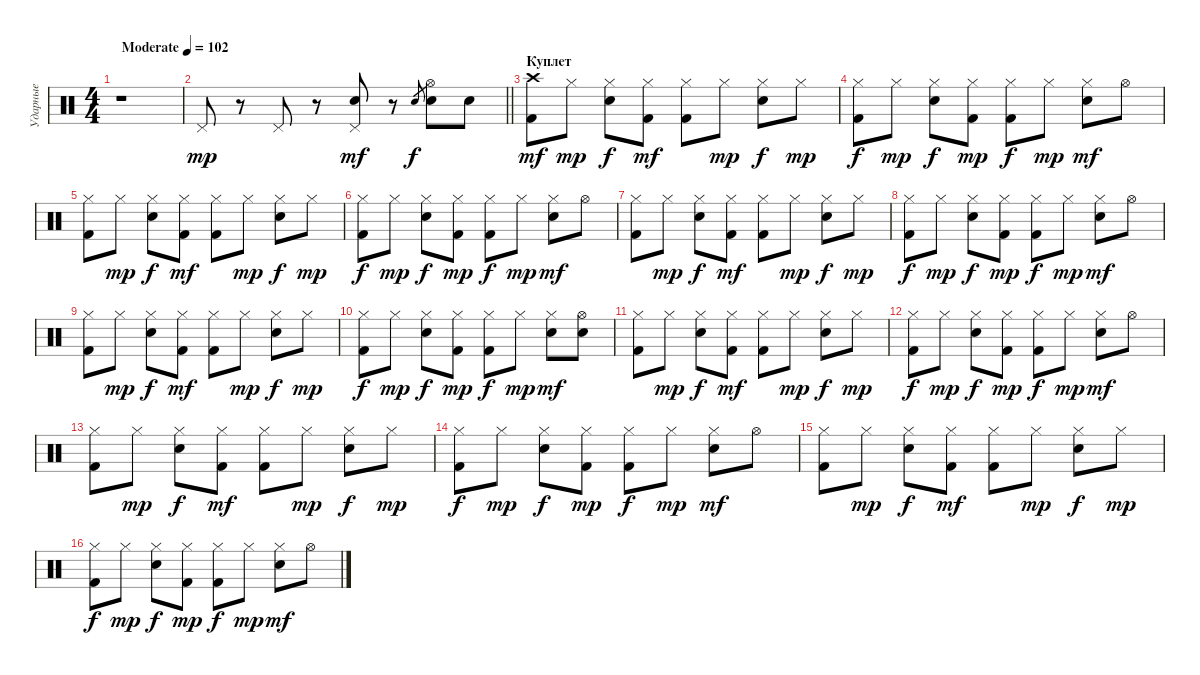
\track ("Ударные" "Ударные") {instrument percussion}
\staff {score}
\articulation defaults
\ts (4 4)
\tempo (102 "Moderate")
\clef neutral
\ks c
r.1{dy mp} |
\barLineRight lightlight "Pedal Hi-Hat (hit)".8
r.8 "Pedal Hi-Hat (hit)".8 r.8 ("Pedal Hi-Hat (hit)" "Snare (hit) 2").8{dy mf} r.8 "Electric Snare (hit)".8{gr dy f} ("Hi-Hat (open)" "Snare (hit) 2").8 "Snare (hit) 2".8 |
\section ("" "Куплет")
("Crash high (hit)" "Kick (hit) 2").8{dy mf} "Hi-Hat (closed)".8{dy mp} ("Hi-Hat (closed)" "Snare (hit) 2").8{dy f} ("Hi-Hat (closed)" "Kick (hit) 2").8{dy mf} ("Hi-Hat (closed)" "Kick (hit) 2").8 "Hi-Hat (closed)".8{dy mp} ("Hi-Hat (closed)" "Snare (hit) 2").8{dy f} "Hi-Hat (closed)".8{dy mp} |
("Hi-Hat (closed)" "Kick (hit) 2").8{dy f} "Hi-Hat (closed)".8{dy mp} ("Hi-Hat (closed)" "Snare (hit) 2").8{dy f} ("Hi-Hat (closed)" "Kick (hit) 2").8{dy mp} ("Hi-Hat (closed)" "Kick (hit) 2").8{dy f} "Hi-Hat (closed)".8{dy mp} ("Hi-Hat (closed)" "Snare (hit) 2").8{dy mf} "Hi-Hat (open)".8 |
("Hi-Hat (closed)" "Kick (hit) 2").8 "Hi-Hat (closed)".8{dy mp} ("Hi-Hat (closed)" "Snare (hit) 2").8{dy f} ("Hi-Hat (closed)" "Kick (hit) 2").8{dy mf} ("Hi-Hat (closed)" "Kick (hit) 2").8 "Hi-Hat (closed)".8{dy mp} ("Hi-Hat (closed)" "Snare (hit) 2").8{dy f} "Hi-Hat (closed)".8{dy mp} |
("Hi-Hat (closed)" "Kick (hit) 2").8{dy f} "Hi-Hat (closed)".8{dy mp} ("Hi-Hat (closed)" "Snare (hit) 2").8{dy f} ("Hi-Hat (closed)" "Kick (hit) 2").8{dy mp} ("Hi-Hat (closed)" "Kick (hit) 2").8{dy f} "Hi-Hat (closed)".8{dy mp} ("Hi-Hat (closed)" "Snare (hit) 2").8{dy mf} "Hi-Hat (open)".8 |
("Hi-Hat (closed)" "Kick (hit) 2").8 "Hi-Hat (closed)".8{dy mp} ("Hi-Hat (closed)" "Snare (hit) 2").8{dy f} ("Hi-Hat (closed)" "Kick (hit) 2").8{dy mf} ("Hi-Hat (closed)" "Kick (hit) 2").8 "Hi-Hat (closed)".8{dy mp} ("Hi-Hat (closed)" "Snare (hit) 2").8{dy f} "Hi-Hat (closed)".8{dy mp} |
("Hi-Hat (closed)" "Kick (hit) 2").8{dy f} "Hi-Hat (closed)".8{dy mp} ("Hi-Hat (closed)" "Snare (hit) 2").8{dy f} ("Hi-Hat (closed)" "Kick (hit) 2").8{dy mp} ("Hi-Hat (closed)" "Kick (hit) 2").8{dy f} "Hi-Hat (closed)".8{dy mp} ("Hi-Hat (closed)" "Snare (hit) 2").8{dy mf} "Hi-Hat (open)".8 |
("Hi-Hat (closed)" "Kick (hit) 2").8 "Hi-Hat (closed)".8{dy mp} ("Hi-Hat (closed)" "Snare (hit) 2").8{dy f} ("Hi-Hat (closed)" "Kick (hit) 2").8{dy mf} ("Hi-Hat (closed)" "Kick (hit) 2").8 "Hi-Hat (closed)".8{dy mp} ("Hi-Hat (closed)" "Snare (hit) 2").8{dy f} "Hi-Hat (closed)".8{dy mp} |
("Hi-Hat (closed)" "Kick (hit) 2").8{dy f} "Hi-Hat (closed)".8{dy mp} ("Hi-Hat (closed)" "Snare (hit) 2").8{dy f} ("Hi-Hat (closed)" "Kick (hit) 2").8{dy mp} ("Hi-Hat (closed)" "Kick (hit) 2").8{dy f} "Hi-Hat (closed)".8{dy mp} ("Hi-Hat (closed)" "Snare (hit) 2").8{dy mf} ("Hi-Hat (open)" "Snare (hit) 2").8 |
("Hi-Hat (closed)" "Kick (hit) 2").8 "Hi-Hat (closed)".8{dy mp} ("Hi-Hat (closed)" "Snare (hit) 2").8{dy f} ("Hi-Hat (closed)" "Kick (hit) 2").8{dy mf} ("Hi-Hat (closed)" "Kick (hit) 2").8 "Hi-Hat (closed)".8{dy mp} ("Hi-Hat (closed)" "Snare (hit) 2").8{dy f} "Hi-Hat (closed)".8{dy mp} |
("Hi-Hat (closed)" "Kick (hit) 2").8{dy f} "Hi-Hat (closed)".8{dy mp} ("Hi-Hat (closed)" "Snare (hit) 2").8{dy f} ("Hi-Hat (closed)" "Kick (hit) 2").8{dy mp} ("Hi-Hat (closed)" "Kick (hit) 2").8{dy f} "Hi-Hat (closed)".8{dy mp} ("Hi-Hat (closed)" "Snare (hit) 2").8{dy mf} "Hi-Hat (open)".8 |
("Hi-Hat (closed)" "Kick (hit) 2").8 "Hi-Hat (closed)".8{dy mp} ("Hi-Hat (closed)" "Snare (hit) 2").8{dy f} ("Hi-Hat (closed)" "Kick (hit) 2").8{dy mf} ("Hi-Hat (closed)" "Kick (hit) 2").8 "Hi-Hat (closed)".8{dy mp} ("Hi-Hat (closed)" "Snare (hit) 2").8{dy f} "Hi-Hat (closed)".8{dy mp} |
("Hi-Hat (closed)" "Kick (hit) 2").8{dy f} "Hi-Hat (closed)".8{dy mp} ("Hi-Hat (closed)" "Snare (hit) 2").8{dy f} ("Hi-Hat (closed)" "Kick (hit) 2").8{dy mp} ("Hi-Hat (closed)" "Kick (hit) 2").8{dy f} "Hi-Hat (closed)".8{dy mp} ("Hi-Hat (closed)" "Snare (hit) 2").8{dy mf} "Hi-Hat (open)".8 |
("Hi-Hat (closed)" "Kick (hit) 2").8 "Hi-Hat (closed)".8{dy mp} ("Hi-Hat (closed)" "Snare (hit) 2").8{dy f} ("Hi-Hat (closed)" "Kick (hit) 2").8{dy mf} ("Hi-Hat (closed)" "Kick (hit) 2").8 "Hi-Hat (closed)".8{dy mp} ("Hi-Hat (closed)" "Snare (hit) 2").8{dy f} "Hi-Hat (closed)".8{dy mp} |
("Hi-Hat (closed)" "Kick (hit) 2").8{dy f} "Hi-Hat (closed)".8{dy mp} ("Hi-Hat (closed)" "Snare (hit) 2").8{dy f} ("Hi-Hat (closed)" "Kick (hit) 2").8{dy mp} ("Hi-Hat (closed)" "Kick (hit) 2").8{dy f} "Hi-Hat (closed)".8{dy mp} ("Hi-Hat (closed)" "Snare (hit) 2").8{dy mf} "Hi-Hat (open)".8
